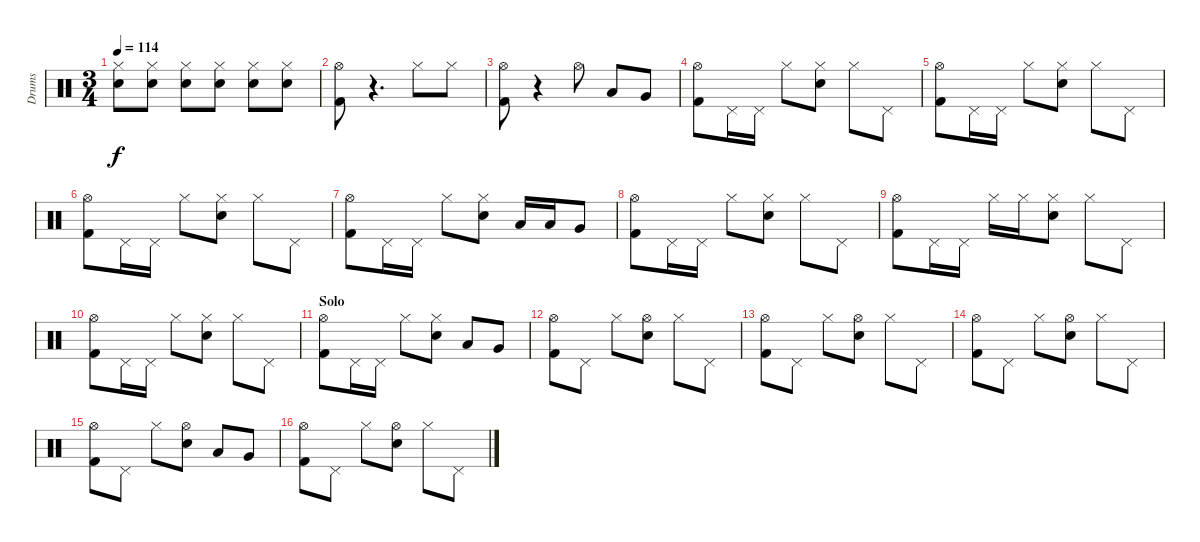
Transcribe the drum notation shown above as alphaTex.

\track ("Drums" "Drums") {instrument percussion}
\staff {score}
\articulation defaults
\ts (3 4)
\tempo 114
\clef neutral
\ks c
("Hi-Hat (closed)" "Electric Snare (hit)").8{dy f} ("Hi-Hat (closed)" "Electric Snare (hit)").8 ("Hi-Hat (closed)" "Electric Snare (hit)").8 ("Hi-Hat (closed)" "Electric Snare (hit)").8 ("Hi-Hat (closed)" "Electric Snare (hit)").8 ("Hi-Hat (closed)" "Electric Snare (hit)").8 |
("Hi-Hat (open)" "Kick (hit) 2").8 r.4{d} "Hi-Hat (closed)".8 "Hi-Hat (closed)".8 |
("Hi-Hat (open)" "Kick (hit) 2").8 r.4 "Hi-Hat (open)".8 "Low Tom (hit)".8 "Very Low Tom (hit)".8 |
("Hi-Hat (open)" "Kick (hit) 2").8 "Pedal Hi-Hat (hit)".16 "Pedal Hi-Hat (hit)".16 "Hi-Hat (closed)".8 ("Hi-Hat (closed)" "Electric Snare (hit)").8 "Hi-Hat (closed)".8 "Pedal Hi-Hat (hit)".8 |
("Hi-Hat (open)" "Kick (hit) 2").8 "Pedal Hi-Hat (hit)".16 "Pedal Hi-Hat (hit)".16 "Hi-Hat (closed)".8 ("Hi-Hat (closed)" "Electric Snare (hit)").8 "Hi-Hat (closed)".8 "Pedal Hi-Hat (hit)".8 |
("Hi-Hat (open)" "Kick (hit) 2").8 "Pedal Hi-Hat (hit)".16 "Pedal Hi-Hat (hit)".16 "Hi-Hat (closed)".8 ("Hi-Hat (closed)" "Electric Snare (hit)").8 "Hi-Hat (closed)".8 "Pedal Hi-Hat (hit)".8 |
("Hi-Hat (open)" "Kick (hit) 2").8 "Pedal Hi-Hat (hit)".16 "Pedal Hi-Hat (hit)".16 "Hi-Hat (closed)".8 ("Hi-Hat (closed)" "Electric Snare (hit)").8 "Low Tom (hit)".16 "Low Tom (hit)".16 "Very Low Tom (hit)".8 |
("Hi-Hat (open)" "Kick (hit) 2").8 "Pedal Hi-Hat (hit)".16 "Pedal Hi-Hat (hit)".16 "Hi-Hat (closed)".8 ("Hi-Hat (closed)" "Electric Snare (hit)").8 "Hi-Hat (closed)".8 "Pedal Hi-Hat (hit)".8 |
("Hi-Hat (open)" "Kick (hit) 2").8 "Pedal Hi-Hat (hit)".16 "Pedal Hi-Hat (hit)".16 "Hi-Hat (closed)".16 "Hi-Hat (closed)".16 ("Hi-Hat (closed)" "Electric Snare (hit)").8 "Hi-Hat (closed)".8 "Pedal Hi-Hat (hit)".8 |
("Hi-Hat (open)" "Kick (hit) 2").8 "Pedal Hi-Hat (hit)".16 "Pedal Hi-Hat (hit)".16 "Hi-Hat (closed)".8 ("Hi-Hat (closed)" "Electric Snare (hit)").8 "Hi-Hat (closed)".8 "Pedal Hi-Hat (hit)".8 |
\section ("" "Solo")
("Hi-Hat (open)" "Kick (hit) 2").8 "Pedal Hi-Hat (hit)".16 "Pedal Hi-Hat (hit)".16 "Hi-Hat (closed)".8 ("Hi-Hat (closed)" "Electric Snare (hit)").8 "Low Tom (hit)".8 "Very Low Tom (hit)".8 |
("Hi-Hat (open)" "Kick (hit) 2").8 "Pedal Hi-Hat (hit)".8 "Hi-Hat (closed)".8 ("Hi-Hat (open)" "Electric Snare (hit)").8 "Hi-Hat (closed)".8 "Pedal Hi-Hat (hit)".8 |
("Hi-Hat (open)" "Kick (hit) 2").8 "Pedal Hi-Hat (hit)".8 "Hi-Hat (closed)".8 ("Hi-Hat (open)" "Electric Snare (hit)").8 "Hi-Hat (closed)".8 "Pedal Hi-Hat (hit)".8 |
("Hi-Hat (open)" "Kick (hit) 2").8 "Pedal Hi-Hat (hit)".8 "Hi-Hat (closed)".8 ("Hi-Hat (open)" "Electric Snare (hit)").8 "Hi-Hat (closed)".8 "Pedal Hi-Hat (hit)".8 |
("Hi-Hat (open)" "Kick (hit) 2").8 "Pedal Hi-Hat (hit)".8 "Hi-Hat (closed)".8 ("Hi-Hat (open)" "Electric Snare (hit)").8 "Low Tom (hit)".8 "Very Low Tom (hit)".8 |
("Hi-Hat (open)" "Kick (hit) 2").8 "Pedal Hi-Hat (hit)".8 "Hi-Hat (closed)".8 ("Hi-Hat (open)" "Electric Snare (hit)").8 "Hi-Hat (closed)".8 "Pedal Hi-Hat (hit)".8
